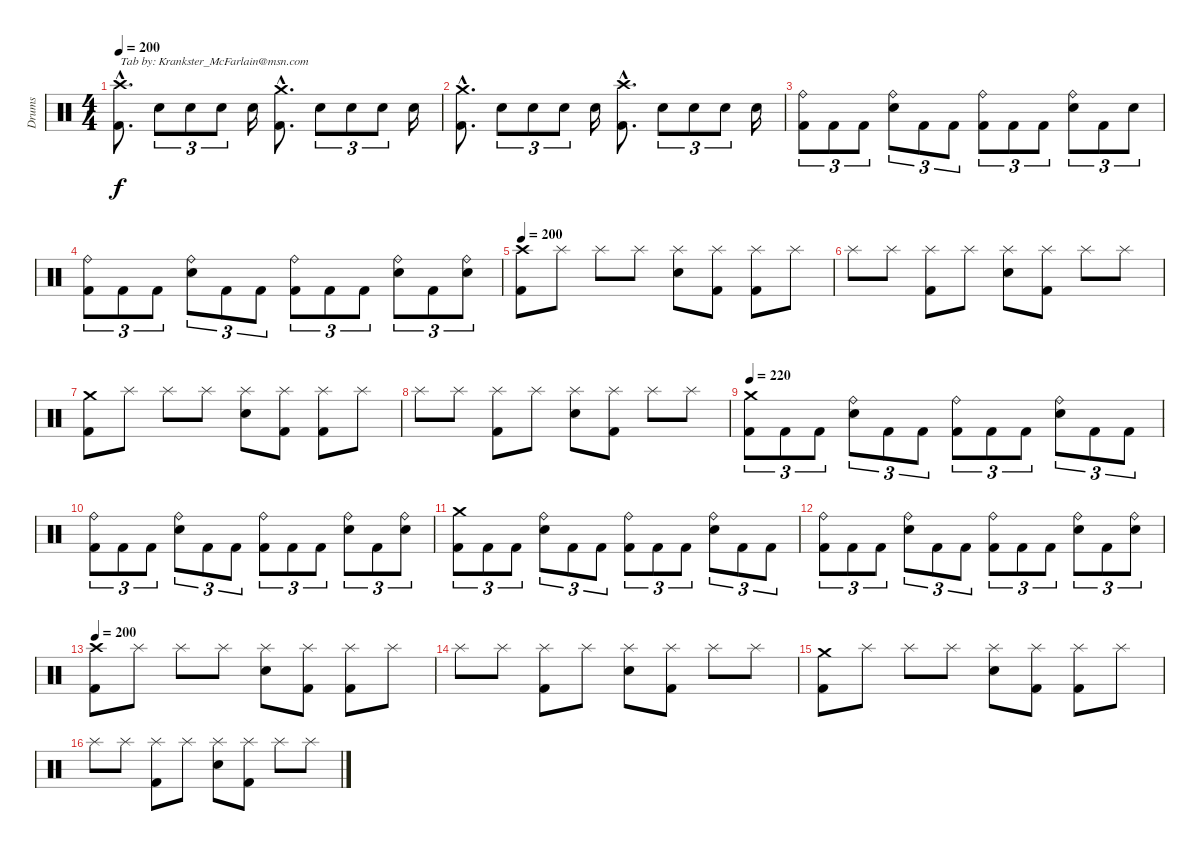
\track ("Drums" "Drums") {instrument percussion}
\staff {score}
\articulation defaults
\ts (4 4)
\tempo 200
\tempo 220
\tempo 200
\clef neutral
\ks c
("Crash high (hit)"{hac} "Kick (hit) 2"{hac}).8{d txt "Tab by: Krankster_McFarlain@msn.com" dy f} "Snare (hit) 2".8{tu (3 2)} "Snare (hit) 2".8{tu (3 2)} "Snare (hit) 2".8{tu (3 2)} "Snare (hit) 2".16 ("Crash medium (hit)"{hac} "Kick (hit) 2"{hac}).8{d} "Snare (hit) 2".8{tu (3 2)} "Snare (hit) 2".8{tu (3 2)} "Snare (hit) 2".8{tu (3 2)} "Snare (hit) 2".16 |
("Crash medium (hit)"{hac} "Kick (hit) 2"{hac}).8{d} "Snare (hit) 2".8{tu (3 2)} "Snare (hit) 2".8{tu (3 2)} "Snare (hit) 2".8{tu (3 2)} "Snare (hit) 2".16 ("Crash high (hit)"{hac} "Kick (hit) 2"{hac}).8{d} "Snare (hit) 2".8{tu (3 2)} "Snare (hit) 2".8{tu (3 2)} "Snare (hit) 2".8{tu (3 2)} "Snare (hit) 2".16 |
("Ride (bell)" "Kick (hit) 2").8{tu (3 2)} "Kick (hit) 2".8{tu (3 2)} "Kick (hit) 2".8{tu (3 2)} ("Ride (bell)" "Snare (hit) 2").8{tu (3 2)} "Kick (hit) 2".8{tu (3 2)} "Kick (hit) 2".8{tu (3 2)} ("Ride (bell)" "Kick (hit) 2").8{tu (3 2)} "Kick (hit) 2".8{tu (3 2)} "Kick (hit) 2".8{tu (3 2)} ("Ride (bell)" "Snare (hit) 2").8{tu (3 2)} "Kick (hit) 2".8{tu (3 2)} "Snare (hit) 2".8{tu (3 2)} |
("Ride (bell)" "Kick (hit) 2").8{tu (3 2)} "Kick (hit) 2".8{tu (3 2)} "Kick (hit) 2".8{tu (3 2)} ("Ride (bell)" "Snare (hit) 2").8{tu (3 2)} "Kick (hit) 2".8{tu (3 2)} "Kick (hit) 2".8{tu (3 2)} ("Ride (bell)" "Kick (hit) 2").8{tu (3 2)} "Kick (hit) 2".8{tu (3 2)} "Kick (hit) 2".8{tu (3 2)} ("Ride (bell)" "Snare (hit) 2").8{tu (3 2)} "Kick (hit) 2".8{tu (3 2)} ("Ride (bell)" "Snare (hit) 2").8{tu (3 2)} |
\tempo 200
("Crash high (hit)" "Kick (hit) 2").8 "Splash (hit)".8 "Splash (hit)".8 "Splash (hit)".8 ("Splash (hit)" "Snare (hit) 2").8 ("Splash (hit)" "Kick (hit) 2").8 ("Splash (hit)" "Kick (hit) 2").8 "Splash (hit)".8 |
"Splash (hit)".8 "Splash (hit)".8 ("Splash (hit)" "Kick (hit) 2").8 "Splash (hit)".8 ("Splash (hit)" "Snare (hit) 2").8 ("Splash (hit)" "Kick (hit) 2").8 "Splash (hit)".8 "Splash (hit)".8 |
("Crash medium (hit)" "Kick (hit) 2").8 "Splash (hit)".8 "Splash (hit)".8 "Splash (hit)".8 ("Splash (hit)" "Snare (hit) 2").8 ("Splash (hit)" "Kick (hit) 2").8 ("Splash (hit)" "Kick (hit) 2").8 "Splash (hit)".8 |
"Splash (hit)".8 "Splash (hit)".8 ("Splash (hit)" "Kick (hit) 2").8 "Splash (hit)".8 ("Splash (hit)" "Snare (hit) 2").8 ("Splash (hit)" "Kick (hit) 2").8 "Splash (hit)".8 "Splash (hit)".8 |
\tempo 220
("Crash medium (hit)" "Kick (hit) 2").8{tu (3 2)} "Kick (hit) 2".8{tu (3 2)} "Kick (hit) 2".8{tu (3 2)} ("Ride (bell)" "Snare (hit) 2").8{tu (3 2)} "Kick (hit) 2".8{tu (3 2)} "Kick (hit) 2".8{tu (3 2)} ("Ride (bell)" "Kick (hit) 2").8{tu (3 2)} "Kick (hit) 2".8{tu (3 2)} "Kick (hit) 2".8{tu (3 2)} ("Ride (bell)" "Snare (hit) 2").8{tu (3 2)} "Kick (hit) 2".8{tu (3 2)} "Kick (hit) 2".8{tu (3 2)} |
("Ride (bell)" "Kick (hit) 2").8{tu (3 2)} "Kick (hit) 2".8{tu (3 2)} "Kick (hit) 2".8{tu (3 2)} ("Ride (bell)" "Snare (hit) 2").8{tu (3 2)} "Kick (hit) 2".8{tu (3 2)} "Kick (hit) 2".8{tu (3 2)} ("Ride (bell)" "Kick (hit) 2").8{tu (3 2)} "Kick (hit) 2".8{tu (3 2)} "Kick (hit) 2".8{tu (3 2)} ("Ride (bell)" "Snare (hit) 2").8{tu (3 2)} "Kick (hit) 2".8{tu (3 2)} ("Ride (bell)" "Snare (hit) 2").8{tu (3 2)} |
("Crash medium (hit)" "Kick (hit) 2").8{tu (3 2)} "Kick (hit) 2".8{tu (3 2)} "Kick (hit) 2".8{tu (3 2)} ("Ride (bell)" "Snare (hit) 2").8{tu (3 2)} "Kick (hit) 2".8{tu (3 2)} "Kick (hit) 2".8{tu (3 2)} ("Ride (bell)" "Kick (hit) 2").8{tu (3 2)} "Kick (hit) 2".8{tu (3 2)} "Kick (hit) 2".8{tu (3 2)} ("Ride (bell)" "Snare (hit) 2").8{tu (3 2)} "Kick (hit) 2".8{tu (3 2)} "Kick (hit) 2".8{tu (3 2)} |
("Ride (bell)" "Kick (hit) 2").8{tu (3 2)} "Kick (hit) 2".8{tu (3 2)} "Kick (hit) 2".8{tu (3 2)} ("Ride (bell)" "Snare (hit) 2").8{tu (3 2)} "Kick (hit) 2".8{tu (3 2)} "Kick (hit) 2".8{tu (3 2)} ("Ride (bell)" "Kick (hit) 2").8{tu (3 2)} "Kick (hit) 2".8{tu (3 2)} "Kick (hit) 2".8{tu (3 2)} ("Ride (bell)" "Snare (hit) 2").8{tu (3 2)} "Kick (hit) 2".8{tu (3 2)} ("Ride (bell)" "Snare (hit) 2").8{tu (3 2)} |
\tempo 200
("Crash high (hit)" "Kick (hit) 2").8 "Splash (hit)".8 "Splash (hit)".8 "Splash (hit)".8 ("Splash (hit)" "Snare (hit) 2").8 ("Splash (hit)" "Kick (hit) 2").8 ("Splash (hit)" "Kick (hit) 2").8 "Splash (hit)".8 |
"Splash (hit)".8 "Splash (hit)".8 ("Splash (hit)" "Kick (hit) 2").8 "Splash (hit)".8 ("Splash (hit)" "Snare (hit) 2").8 ("Splash (hit)" "Kick (hit) 2").8 "Splash (hit)".8 "Splash (hit)".8 |
("Crash medium (hit)" "Kick (hit) 2").8 "Splash (hit)".8 "Splash (hit)".8 "Splash (hit)".8 ("Splash (hit)" "Snare (hit) 2").8 ("Splash (hit)" "Kick (hit) 2").8 ("Splash (hit)" "Kick (hit) 2").8 "Splash (hit)".8 |
"Splash (hit)".8 "Splash (hit)".8 ("Splash (hit)" "Kick (hit) 2").8 "Splash (hit)".8 ("Splash (hit)" "Snare (hit) 2").8 ("Splash (hit)" "Kick (hit) 2").8 "Splash (hit)".8 "Splash (hit)".8
